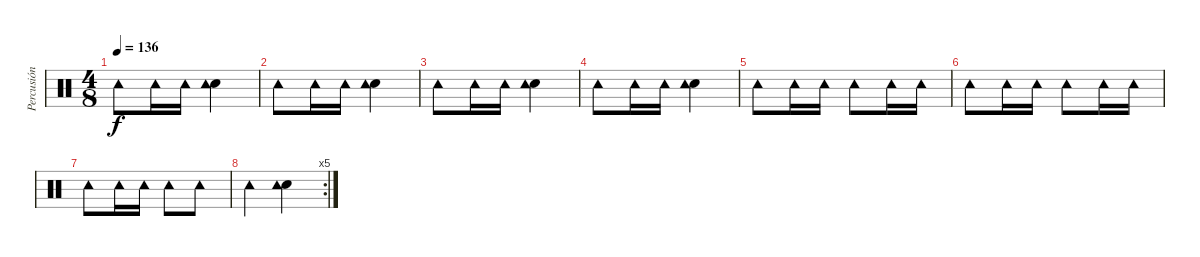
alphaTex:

\track ("Percusión" "Percusión") {instrument percussion}
\staff {score}
\articulation defaults
\ts (4 8)
\tempo 136
\clef neutral
\ks c "Tambourine (hit)".8{dy f} "Tambourine (hit)".16 "Tambourine (hit)".16
("Electric Snare (hit)" "Tambourine (hit)").4 |
"Tambourine (hit)".8 "Tambourine (hit)".16 "Tambourine (hit)".16 ("Electric Snare (hit)" "Tambourine (hit)").4 |
"Tambourine (hit)".8 "Tambourine (hit)".16 "Tambourine (hit)".16 ("Electric Snare (hit)" "Tambourine (hit)").4 |
"Tambourine (hit)".8 "Tambourine (hit)".16 "Tambourine (hit)".16 ("Electric Snare (hit)" "Tambourine (hit)").4 |
"Tambourine (hit)".8 "Tambourine (hit)".16 "Tambourine (hit)".16 "Tambourine (hit)".8 "Tambourine (hit)".16 "Tambourine (hit)".16 |
"Tambourine (hit)".8 "Tambourine (hit)".16 "Tambourine (hit)".16 "Tambourine (hit)".8 "Tambourine (hit)".16 "Tambourine (hit)".16 |
"Tambourine (hit)".8 "Tambourine (hit)".16 "Tambourine (hit)".16 "Tambourine (hit)".8 "Tambourine (hit)".8 |
\rc 5 "Tambourine (hit)".4
("Electric Snare (hit)" "Tambourine (hit)").4
